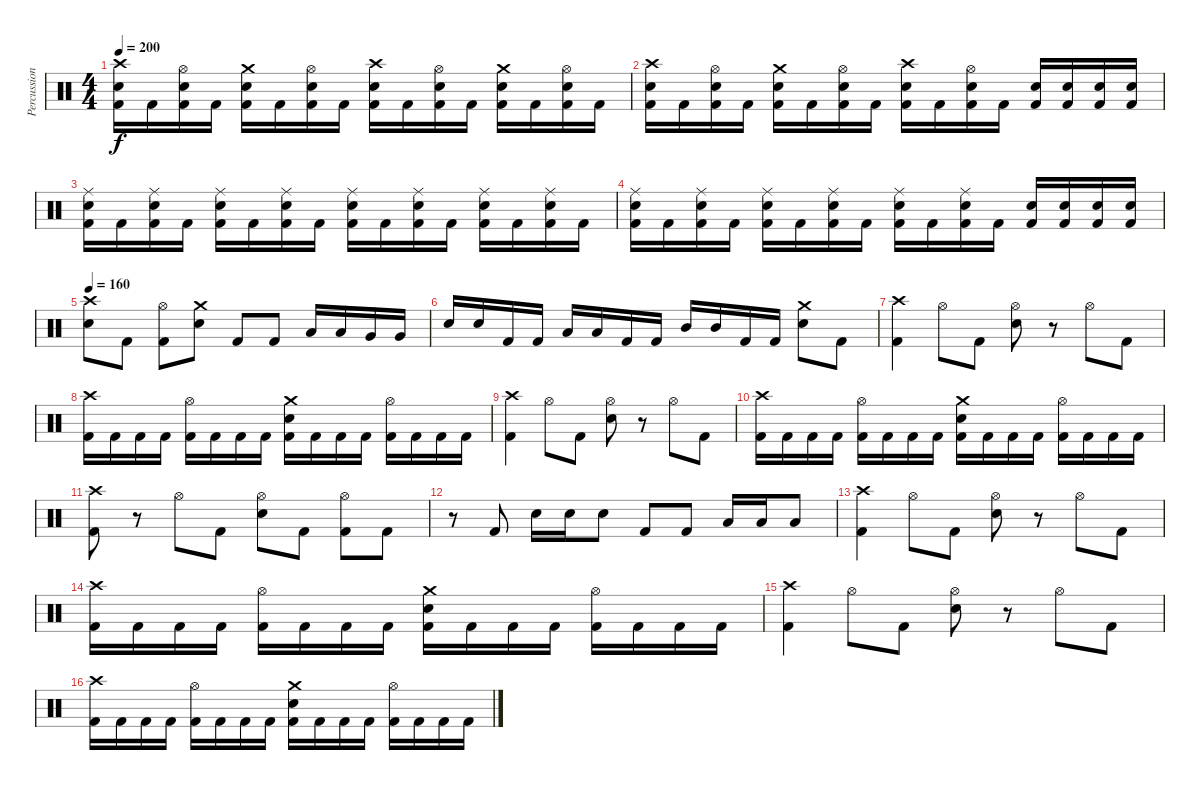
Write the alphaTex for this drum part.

\track ("Percussion" "Percussion") {instrument percussion}
\staff {score}
\articulation defaults
\ts (4 4)
\tempo 200
\clef neutral
\ks c
("Crash high (hit)" "Electric Snare (hit)" "Kick (hit) 2").16{dy f} "Kick (hit) 2".16 ("Hi-Hat (open)" "Electric Snare (hit)" "Kick (hit) 2").16 "Kick (hit) 2".16 ("Crash medium (hit)" "Electric Snare (hit)" "Kick (hit) 2").16 "Kick (hit) 2".16 ("Hi-Hat (open)" "Electric Snare (hit)" "Kick (hit) 2").16 "Kick (hit) 2".16 ("Crash high (hit)" "Electric Snare (hit)" "Kick (hit) 2").16 "Kick (hit) 2".16 ("Hi-Hat (open)" "Electric Snare (hit)" "Kick (hit) 2").16 "Kick (hit) 2".16 ("Crash medium (hit)" "Electric Snare (hit)" "Kick (hit) 2").16 "Kick (hit) 2".16 ("Hi-Hat (open)" "Electric Snare (hit)" "Kick (hit) 2").16 "Kick (hit) 2".16 |
("Crash high (hit)" "Electric Snare (hit)" "Kick (hit) 2").16 "Kick (hit) 2".16 ("Hi-Hat (open)" "Electric Snare (hit)" "Kick (hit) 2").16 "Kick (hit) 2".16 ("Crash medium (hit)" "Electric Snare (hit)" "Kick (hit) 2").16 "Kick (hit) 2".16 ("Hi-Hat (open)" "Electric Snare (hit)" "Kick (hit) 2").16 "Kick (hit) 2".16 ("Crash high (hit)" "Electric Snare (hit)" "Kick (hit) 2").16 "Kick (hit) 2".16 ("Hi-Hat (open)" "Electric Snare (hit)" "Kick (hit) 2").16 "Kick (hit) 2".16 ("Electric Snare (hit)" "Kick (hit) 2").16 ("Electric Snare (hit)" "Kick (hit) 2").16 ("Electric Snare (hit)" "Kick (hit) 2").16 ("Electric Snare (hit)" "Kick (hit) 2").16 |
("Ride (middle)" "Electric Snare (hit)" "Kick (hit) 2").16 "Kick (hit) 2".16 ("Ride (middle)" "Electric Snare (hit)" "Kick (hit) 2").16 "Kick (hit) 2".16 ("Ride (middle)" "Electric Snare (hit)" "Kick (hit) 2").16 "Kick (hit) 2".16 ("Ride (middle)" "Electric Snare (hit)" "Kick (hit) 2").16 "Kick (hit) 2".16 ("Ride (middle)" "Electric Snare (hit)" "Kick (hit) 2").16 "Kick (hit) 2".16 ("Ride (middle)" "Electric Snare (hit)" "Kick (hit) 2").16 "Kick (hit) 2".16 ("Ride (middle)" "Electric Snare (hit)" "Kick (hit) 2").16 "Kick (hit) 2".16 ("Ride (middle)" "Electric Snare (hit)" "Kick (hit) 2").16 "Kick (hit) 2".16 |
("Ride (middle)" "Electric Snare (hit)" "Kick (hit) 2").16 "Kick (hit) 2".16 ("Ride (middle)" "Electric Snare (hit)" "Kick (hit) 2").16 "Kick (hit) 2".16 ("Ride (middle)" "Electric Snare (hit)" "Kick (hit) 2").16 "Kick (hit) 2".16 ("Ride (middle)" "Electric Snare (hit)" "Kick (hit) 2").16 "Kick (hit) 2".16 ("Ride (middle)" "Electric Snare (hit)" "Kick (hit) 2").16 "Kick (hit) 2".16 ("Ride (middle)" "Electric Snare (hit)" "Kick (hit) 2").16 "Kick (hit) 2".16 ("Electric Snare (hit)" "Kick (hit) 2").16 ("Electric Snare (hit)" "Kick (hit) 2").16 ("Electric Snare (hit)" "Kick (hit) 2").16 ("Electric Snare (hit)" "Kick (hit) 2").16 |
\tempo 160
("Crash high (hit)" "Electric Snare (hit)").8 "Kick (hit) 2".8 ("Hi-Hat (open)" "Kick (hit) 2").8 ("Crash medium (hit)" "Electric Snare (hit)").8 "Kick (hit) 2".8 "Kick (hit) 2".8 "Low Tom (hit)".16 "Low Tom (hit)".16 "Very Low Tom (hit)".16 "Very Low Tom (hit)".16 |
"Electric Snare (hit)".16 "Electric Snare (hit)".16 "Kick (hit) 2".16 "Kick (hit) 2".16 "Low Tom (hit)".16 "Low Tom (hit)".16 "Kick (hit) 2".16 "Kick (hit) 2".16 "Mid Tom (hit)".16 "Mid Tom (hit)".16 "Kick (hit) 2".16 "Kick (hit) 2".16 ("Crash medium (hit)" "Electric Snare (hit)").8 "Kick (hit) 2".8 |
("Crash high (hit)" "Kick (hit) 2").4 "Hi-Hat (open)".8 "Kick (hit) 2".8 ("Hi-Hat (open)" "Electric Snare (hit)").8 r.8 "Hi-Hat (open)".8 "Kick (hit) 2".8 |
("Crash high (hit)" "Kick (hit) 2").16 "Kick (hit) 2".16 "Kick (hit) 2".16 "Kick (hit) 2".16 ("Hi-Hat (open)" "Kick (hit) 2").16 "Kick (hit) 2".16 "Kick (hit) 2".16 "Kick (hit) 2".16 ("Crash medium (hit)" "Electric Snare (hit)" "Kick (hit) 2").16 "Kick (hit) 2".16 "Kick (hit) 2".16 "Kick (hit) 2".16 ("Hi-Hat (open)" "Kick (hit) 2").16 "Kick (hit) 2".16 "Kick (hit) 2".16 "Kick (hit) 2".16 |
("Crash high (hit)" "Kick (hit) 2").4 "Hi-Hat (open)".8 "Kick (hit) 2".8 ("Hi-Hat (open)" "Electric Snare (hit)").8 r.8 "Hi-Hat (open)".8 "Kick (hit) 2".8 |
("Crash high (hit)" "Kick (hit) 2").16 "Kick (hit) 2".16 "Kick (hit) 2".16 "Kick (hit) 2".16 ("Hi-Hat (open)" "Kick (hit) 2").16 "Kick (hit) 2".16 "Kick (hit) 2".16 "Kick (hit) 2".16 ("Crash medium (hit)" "Electric Snare (hit)" "Kick (hit) 2").16 "Kick (hit) 2".16 "Kick (hit) 2".16 "Kick (hit) 2".16 ("Hi-Hat (open)" "Kick (hit) 2").16 "Kick (hit) 2".16 "Kick (hit) 2".16 "Kick (hit) 2".16 |
("Crash high (hit)" "Kick (hit) 2").8 r.8 "Hi-Hat (open)".8 "Kick (hit) 2".8 ("Hi-Hat (open)" "Electric Snare (hit)").8 "Kick (hit) 2".8 ("Hi-Hat (open)" "Kick (hit) 2").8 "Kick (hit) 2".8 |
r.8 "Kick (hit) 2".8 "Electric Snare (hit)".16 "Electric Snare (hit)".16 "Electric Snare (hit)".8 "Kick (hit) 2".8 "Kick (hit) 2".8 "Low Tom (hit)".16 "Low Tom (hit)".16 "Low Tom (hit)".8 |
("Crash high (hit)" "Kick (hit) 2").4 "Hi-Hat (open)".8 "Kick (hit) 2".8 ("Hi-Hat (open)" "Electric Snare (hit)").8 r.8 "Hi-Hat (open)".8 "Kick (hit) 2".8 |
("Crash high (hit)" "Kick (hit) 2").16 "Kick (hit) 2".16 "Kick (hit) 2".16 "Kick (hit) 2".16 ("Hi-Hat (open)" "Kick (hit) 2").16 "Kick (hit) 2".16 "Kick (hit) 2".16 "Kick (hit) 2".16 ("Crash medium (hit)" "Electric Snare (hit)" "Kick (hit) 2").16 "Kick (hit) 2".16 "Kick (hit) 2".16 "Kick (hit) 2".16 ("Hi-Hat (open)" "Kick (hit) 2").16 "Kick (hit) 2".16 "Kick (hit) 2".16 "Kick (hit) 2".16 |
("Crash high (hit)" "Kick (hit) 2").4 "Hi-Hat (open)".8 "Kick (hit) 2".8 ("Hi-Hat (open)" "Electric Snare (hit)").8 r.8 "Hi-Hat (open)".8 "Kick (hit) 2".8 |
("Crash high (hit)" "Kick (hit) 2").16 "Kick (hit) 2".16 "Kick (hit) 2".16 "Kick (hit) 2".16 ("Hi-Hat (open)" "Kick (hit) 2").16 "Kick (hit) 2".16 "Kick (hit) 2".16 "Kick (hit) 2".16 ("Crash medium (hit)" "Electric Snare (hit)" "Kick (hit) 2").16 "Kick (hit) 2".16 "Kick (hit) 2".16 "Kick (hit) 2".16 ("Hi-Hat (open)" "Kick (hit) 2").16 "Kick (hit) 2".16 "Kick (hit) 2".16 "Kick (hit) 2".16
